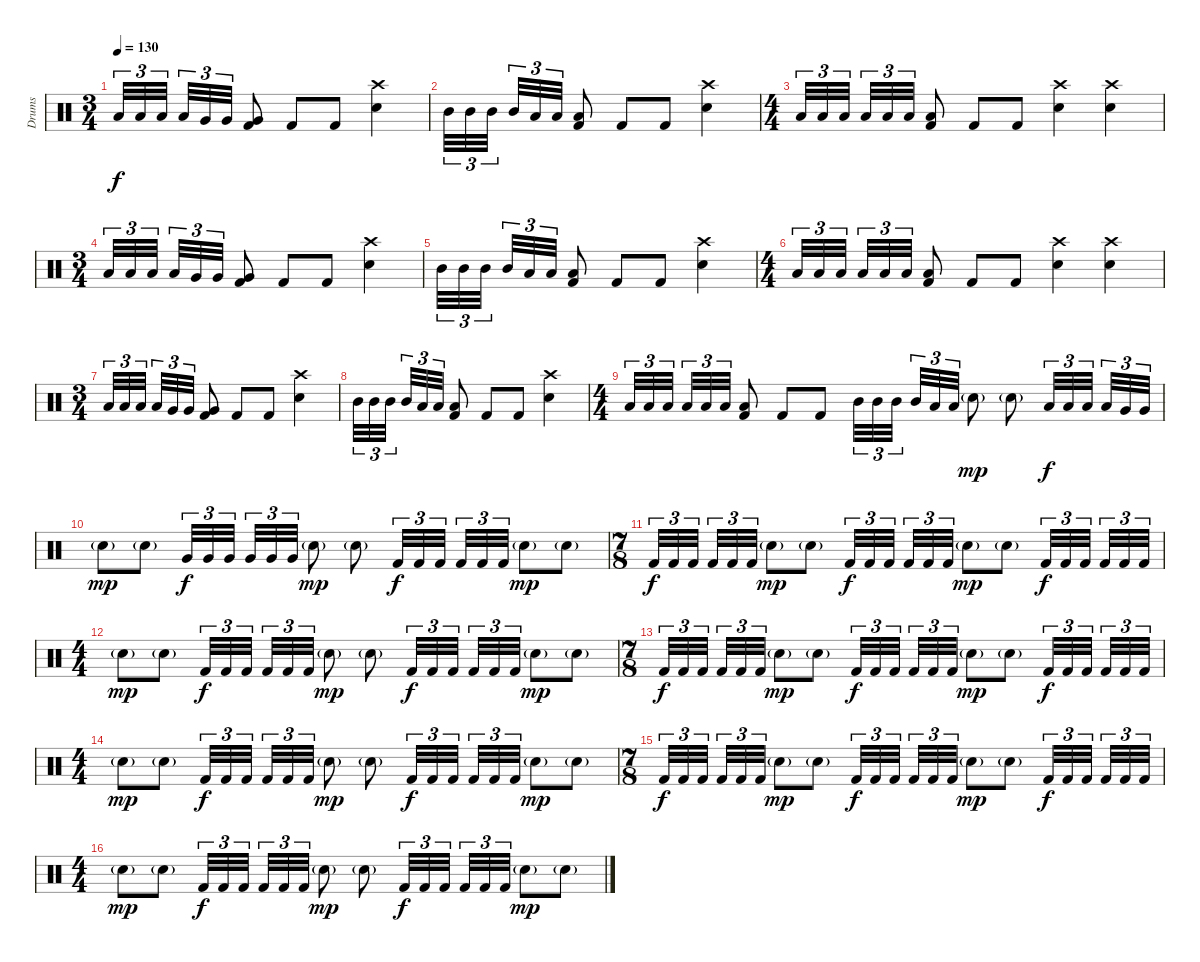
\track ("Drums" "Drums") {instrument percussion}
\staff {score}
\articulation defaults
\ts (3 4)
\tempo 130
\clef neutral
\ks c "Low Floor Tom (hit)".32{tu (3 2) dy f} "Low Floor Tom (hit)".32{tu (3 2)} "Low Floor Tom (hit)".32{tu (3 2)} "Low Floor Tom (hit)".32{tu (3 2)} "Very Low Tom (hit)".32{tu (3 2)} "Very Low Tom (hit)".32{tu (3 2)}
("Very Low Tom (hit)" "Kick (hit) 2").8 "Kick (hit) 2".8 "Kick (hit) 2".8 ("Crash high (hit)" "Snare (hit) 2").4 |
"Mid Tom (hit)".32{tu (3 2)} "Mid Tom (hit)".32{tu (3 2)} "Mid Tom (hit)".32{tu (3 2)} "Mid Tom (hit)".32{tu (3 2)} "Low Tom (hit)".32{tu (3 2)} "Low Tom (hit)".32{tu (3 2)} ("Low Tom (hit)" "Kick (hit) 2").8 "Kick (hit) 2".8 "Kick (hit) 2".8 ("Crash high (hit)" "Snare (hit) 2").4 |
\ts (4 4)
"Low Tom (hit)".32{tu (3 2)} "Low Tom (hit)".32{tu (3 2)} "Low Tom (hit)".32{tu (3 2)} "Low Tom (hit)".32{tu (3 2)} "Low Floor Tom (hit)".32{tu (3 2)} "Low Floor Tom (hit)".32{tu (3 2)} ("Low Floor Tom (hit)" "Kick (hit) 2").8 "Kick (hit) 2".8 "Kick (hit) 2".8 ("Crash high (hit)" "Snare (hit) 2").4 ("Crash high (hit)" "Snare (hit) 2").4 |
\ts (3 4)
"Low Floor Tom (hit)".32{tu (3 2)} "Low Floor Tom (hit)".32{tu (3 2)} "Low Floor Tom (hit)".32{tu (3 2)} "Low Floor Tom (hit)".32{tu (3 2)} "Very Low Tom (hit)".32{tu (3 2)} "Very Low Tom (hit)".32{tu (3 2)} ("Very Low Tom (hit)" "Kick (hit) 2").8 "Kick (hit) 2".8 "Kick (hit) 2".8 ("Crash high (hit)" "Snare (hit) 2").4 |
"Mid Tom (hit)".32{tu (3 2)} "Mid Tom (hit)".32{tu (3 2)} "Mid Tom (hit)".32{tu (3 2)} "Mid Tom (hit)".32{tu (3 2)} "Low Tom (hit)".32{tu (3 2)} "Low Tom (hit)".32{tu (3 2)} ("Low Tom (hit)" "Kick (hit) 2").8 "Kick (hit) 2".8 "Kick (hit) 2".8 ("Crash high (hit)" "Snare (hit) 2").4 |
\ts (4 4)
"Low Tom (hit)".32{tu (3 2)} "Low Tom (hit)".32{tu (3 2)} "Low Tom (hit)".32{tu (3 2)} "Low Tom (hit)".32{tu (3 2)} "Low Floor Tom (hit)".32{tu (3 2)} "Low Floor Tom (hit)".32{tu (3 2)} ("Low Floor Tom (hit)" "Kick (hit) 2").8 "Kick (hit) 2".8 "Kick (hit) 2".8 ("Crash high (hit)" "Snare (hit) 2").4 ("Crash high (hit)" "Snare (hit) 2").4 |
\ts (3 4)
"Low Floor Tom (hit)".32{tu (3 2)} "Low Floor Tom (hit)".32{tu (3 2)} "Low Floor Tom (hit)".32{tu (3 2)} "Low Floor Tom (hit)".32{tu (3 2)} "Very Low Tom (hit)".32{tu (3 2)} "Very Low Tom (hit)".32{tu (3 2)} ("Very Low Tom (hit)" "Kick (hit) 2").8 "Kick (hit) 2".8 "Kick (hit) 2".8 ("Crash high (hit)" "Snare (hit) 2").4 |
"Mid Tom (hit)".32{tu (3 2)} "Mid Tom (hit)".32{tu (3 2)} "Mid Tom (hit)".32{tu (3 2)} "Mid Tom (hit)".32{tu (3 2)} "Low Tom (hit)".32{tu (3 2)} "Low Tom (hit)".32{tu (3 2)} ("Low Tom (hit)" "Kick (hit) 2").8 "Kick (hit) 2".8 "Kick (hit) 2".8 ("Crash high (hit)" "Snare (hit) 2").4 |
\ts (4 4)
"Low Tom (hit)".32{tu (3 2)} "Low Tom (hit)".32{tu (3 2)} "Low Tom (hit)".32{tu (3 2)} "Low Tom (hit)".32{tu (3 2)} "Low Floor Tom (hit)".32{tu (3 2)} "Low Floor Tom (hit)".32{tu (3 2)} ("Low Floor Tom (hit)" "Kick (hit) 2").8 "Kick (hit) 2".8 "Kick (hit) 2".8 "Mid Tom (hit)".32{tu (3 2)} "Mid Tom (hit)".32{tu (3 2)} "Mid Tom (hit)".32{tu (3 2)} "Mid Tom (hit)".32{tu (3 2)} "Low Tom (hit)".32{tu (3 2)} "Low Tom (hit)".32{tu (3 2)} "Snare (hit) 2"{g}.8{dy mp} "Snare (hit) 2"{g}.8 "Low Floor Tom (hit)".32{tu (3 2) dy f} "Low Floor Tom (hit)".32{tu (3 2)} "Low Floor Tom (hit)".32{tu (3 2)} "Low Floor Tom (hit)".32{tu (3 2)} "Very Low Tom (hit)".32{tu (3 2)} "Very Low Tom (hit)".32{tu (3 2)} |
"Snare (hit) 2"{g}.8{dy mp} "Snare (hit) 2"{g}.8 "Very Low Tom (hit)".32{tu (3 2) dy f} "Very Low Tom (hit)".32{tu (3 2)} "Very Low Tom (hit)".32{tu (3 2)} "Very Low Tom (hit)".32{tu (3 2)} "Very Low Tom (hit)".32{tu (3 2)} "Very Low Tom (hit)".32{tu (3 2)} "Snare (hit) 2"{g}.8{dy mp volume 4} "Snare (hit) 2"{g}.8 "Kick (hit) 2".32{tu (3 2) dy f} "Kick (hit) 2".32{tu (3 2)} "Kick (hit) 2".32{tu (3 2)} "Kick (hit) 2".32{tu (3 2)} "Kick (hit) 2".32{tu (3 2)} "Kick (hit) 2".32{tu (3 2)} "Snare (hit) 2"{g}.8{dy mp} "Snare (hit) 2"{g}.8 |
\ts (7 8)
"Kick (hit) 2".32{tu (3 2) dy f} "Kick (hit) 2".32{tu (3 2)} "Kick (hit) 2".32{tu (3 2)} "Kick (hit) 2".32{tu (3 2)} "Kick (hit) 2".32{tu (3 2)} "Kick (hit) 2".32{tu (3 2)} "Snare (hit) 2"{g}.8{dy mp} "Snare (hit) 2"{g}.8 "Kick (hit) 2".32{tu (3 2) dy f} "Kick (hit) 2".32{tu (3 2)} "Kick (hit) 2".32{tu (3 2)} "Kick (hit) 2".32{tu (3 2)} "Kick (hit) 2".32{tu (3 2)} "Kick (hit) 2".32{tu (3 2)} "Snare (hit) 2"{g}.8{dy mp} "Snare (hit) 2"{g}.8 "Kick (hit) 2".32{tu (3 2) dy f} "Kick (hit) 2".32{tu (3 2)} "Kick (hit) 2".32{tu (3 2)} "Kick (hit) 2".32{tu (3 2)} "Kick (hit) 2".32{tu (3 2)} "Kick (hit) 2".32{tu (3 2)} |
\ts (4 4)
"Snare (hit) 2"{g}.8{dy mp volume 13} "Snare (hit) 2"{g}.8 "Kick (hit) 2".32{tu (3 2) dy f} "Kick (hit) 2".32{tu (3 2)} "Kick (hit) 2".32{tu (3 2)} "Kick (hit) 2".32{tu (3 2)} "Kick (hit) 2".32{tu (3 2)} "Kick (hit) 2".32{tu (3 2)} "Snare (hit) 2"{g}.8{dy mp} "Snare (hit) 2"{g}.8 "Kick (hit) 2".32{tu (3 2) dy f} "Kick (hit) 2".32{tu (3 2)} "Kick (hit) 2".32{tu (3 2)} "Kick (hit) 2".32{tu (3 2)} "Kick (hit) 2".32{tu (3 2)} "Kick (hit) 2".32{tu (3 2)} "Snare (hit) 2"{g}.8{dy mp} "Snare (hit) 2"{g}.8 |
\ts (7 8)
"Kick (hit) 2".32{tu (3 2) dy f} "Kick (hit) 2".32{tu (3 2)} "Kick (hit) 2".32{tu (3 2)} "Kick (hit) 2".32{tu (3 2)} "Kick (hit) 2".32{tu (3 2)} "Kick (hit) 2".32{tu (3 2)} "Snare (hit) 2"{g}.8{dy mp} "Snare (hit) 2"{g}.8 "Kick (hit) 2".32{tu (3 2) dy f} "Kick (hit) 2".32{tu (3 2)} "Kick (hit) 2".32{tu (3 2)} "Kick (hit) 2".32{tu (3 2)} "Kick (hit) 2".32{tu (3 2)} "Kick (hit) 2".32{tu (3 2)} "Snare (hit) 2"{g}.8{dy mp} "Snare (hit) 2"{g}.8 "Kick (hit) 2".32{tu (3 2) dy f} "Kick (hit) 2".32{tu (3 2)} "Kick (hit) 2".32{tu (3 2)} "Kick (hit) 2".32{tu (3 2)} "Kick (hit) 2".32{tu (3 2)} "Kick (hit) 2".32{tu (3 2)} |
\ts (4 4)
"Snare (hit) 2"{g}.8{dy mp} "Snare (hit) 2"{g}.8 "Kick (hit) 2".32{tu (3 2) dy f} "Kick (hit) 2".32{tu (3 2)} "Kick (hit) 2".32{tu (3 2)} "Kick (hit) 2".32{tu (3 2)} "Kick (hit) 2".32{tu (3 2)} "Kick (hit) 2".32{tu (3 2)} "Snare (hit) 2"{g}.8{dy mp} "Snare (hit) 2"{g}.8 "Kick (hit) 2".32{tu (3 2) dy f} "Kick (hit) 2".32{tu (3 2)} "Kick (hit) 2".32{tu (3 2)} "Kick (hit) 2".32{tu (3 2)} "Kick (hit) 2".32{tu (3 2)} "Kick (hit) 2".32{tu (3 2)} "Snare (hit) 2"{g}.8{dy mp} "Snare (hit) 2"{g}.8 |
\ts (7 8)
"Kick (hit) 2".32{tu (3 2) dy f} "Kick (hit) 2".32{tu (3 2)} "Kick (hit) 2".32{tu (3 2)} "Kick (hit) 2".32{tu (3 2)} "Kick (hit) 2".32{tu (3 2)} "Kick (hit) 2".32{tu (3 2)} "Snare (hit) 2"{g}.8{dy mp} "Snare (hit) 2"{g}.8 "Kick (hit) 2".32{tu (3 2) dy f} "Kick (hit) 2".32{tu (3 2)} "Kick (hit) 2".32{tu (3 2)} "Kick (hit) 2".32{tu (3 2)} "Kick (hit) 2".32{tu (3 2)} "Kick (hit) 2".32{tu (3 2)} "Snare (hit) 2"{g}.8{dy mp} "Snare (hit) 2"{g}.8 "Kick (hit) 2".32{tu (3 2) dy f volume 4} "Kick (hit) 2".32{tu (3 2)} "Kick (hit) 2".32{tu (3 2)} "Kick (hit) 2".32{tu (3 2)} "Kick (hit) 2".32{tu (3 2)} "Kick (hit) 2".32{tu (3 2)} |
\ts (4 4)
"Snare (hit) 2"{g}.8{dy mp} "Snare (hit) 2"{g}.8 "Kick (hit) 2".32{tu (3 2) dy f} "Kick (hit) 2".32{tu (3 2)} "Kick (hit) 2".32{tu (3 2)} "Kick (hit) 2".32{tu (3 2)} "Kick (hit) 2".32{tu (3 2)} "Kick (hit) 2".32{tu (3 2)} "Snare (hit) 2"{g}.8{dy mp} "Snare (hit) 2"{g}.8 "Kick (hit) 2".32{tu (3 2) dy f volume 0} "Kick (hit) 2".32{tu (3 2)} "Kick (hit) 2".32{tu (3 2)} "Kick (hit) 2".32{tu (3 2)} "Kick (hit) 2".32{tu (3 2)} "Kick (hit) 2".32{tu (3 2)} "Snare (hit) 2"{g}.8{dy mp} "Snare (hit) 2"{g}.8
